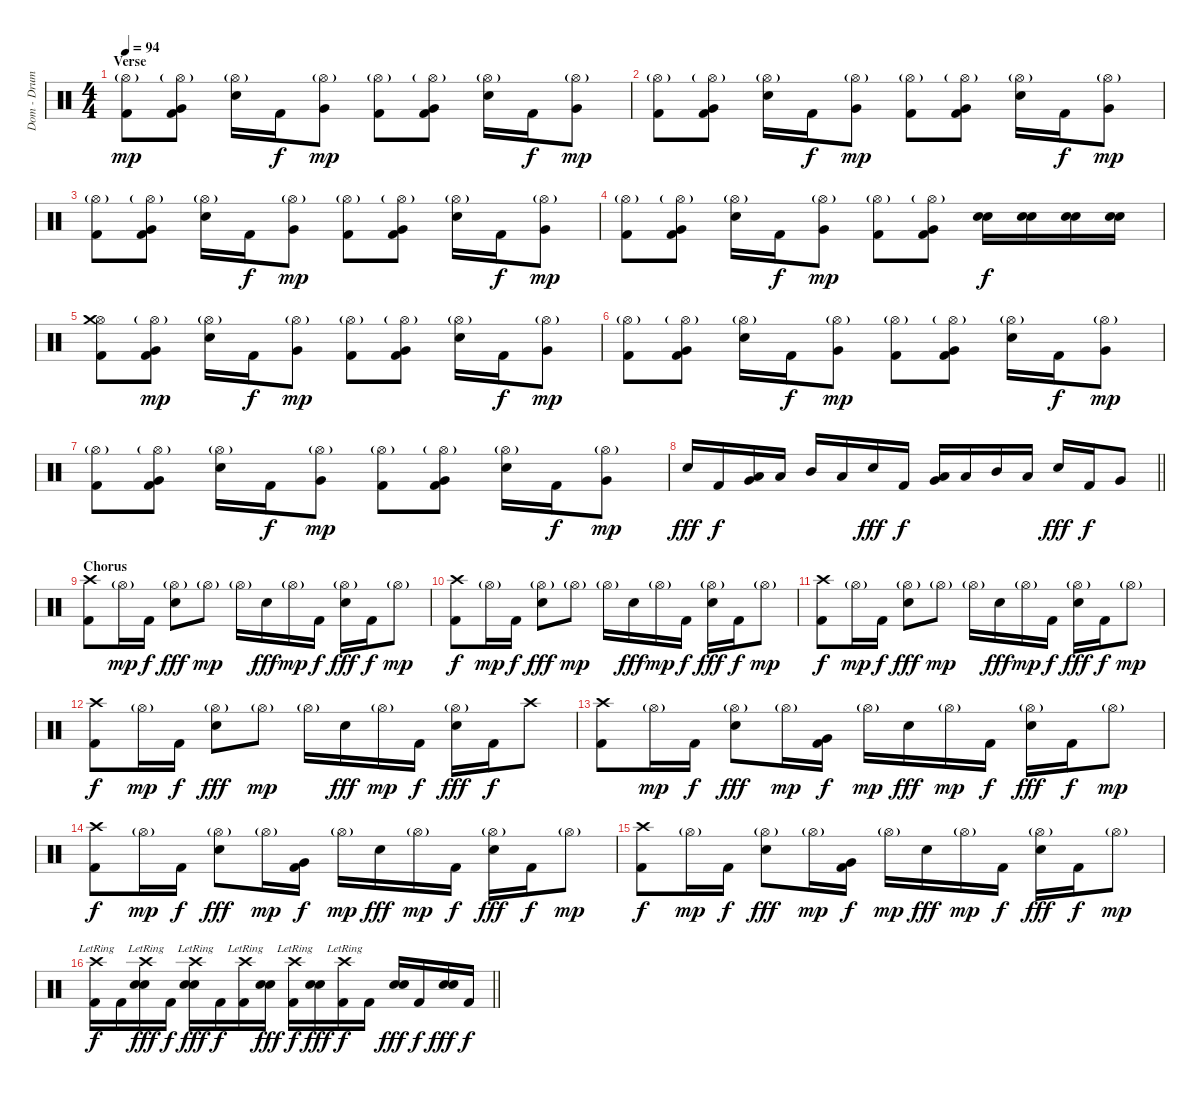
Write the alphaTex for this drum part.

\track ("Dom - Drums" "Dom - Drum") {instrument percussion}
\staff {score}
\articulation defaults
\ts (4 4)
\section ("" "Verse")
\tempo 94
\clef neutral
\ks c
("Hi-Hat (open)"{g} "Kick (hit) 2").8{dy mp} ("Hi-Hat (open)"{g} "Very Low Tom (hit)" "Kick (hit) 2").8 ("Hi-Hat (open)"{g} "Electric Snare (hit)").16 "Kick (hit) 2".16{dy f} ("Hi-Hat (open)"{g} "Very Low Tom (hit)").8{dy mp} ("Hi-Hat (open)"{g} "Kick (hit) 2").8 ("Hi-Hat (open)"{g} "Very Low Tom (hit)" "Kick (hit) 2").8 ("Hi-Hat (open)"{g} "Electric Snare (hit)").16 "Kick (hit) 2".16{dy f} ("Hi-Hat (open)"{g} "Very Low Tom (hit)").8{dy mp} |
("Hi-Hat (open)"{g} "Kick (hit) 2").8 ("Hi-Hat (open)"{g} "Very Low Tom (hit)" "Kick (hit) 2").8 ("Hi-Hat (open)"{g} "Electric Snare (hit)").16 "Kick (hit) 2".16{dy f} ("Hi-Hat (open)"{g} "Very Low Tom (hit)").8{dy mp} ("Hi-Hat (open)"{g} "Kick (hit) 2").8 ("Hi-Hat (open)"{g} "Very Low Tom (hit)" "Kick (hit) 2").8 ("Hi-Hat (open)"{g} "Electric Snare (hit)").16 "Kick (hit) 2".16{dy f} ("Hi-Hat (open)"{g} "Very Low Tom (hit)").8{dy mp} |
("Hi-Hat (open)"{g} "Kick (hit) 2").8 ("Hi-Hat (open)"{g} "Very Low Tom (hit)" "Kick (hit) 2").8 ("Hi-Hat (open)"{g} "Electric Snare (hit)").16 "Kick (hit) 2".16{dy f} ("Hi-Hat (open)"{g} "Very Low Tom (hit)").8{dy mp} ("Hi-Hat (open)"{g} "Kick (hit) 2").8 ("Hi-Hat (open)"{g} "Very Low Tom (hit)" "Kick (hit) 2").8 ("Hi-Hat (open)"{g} "Electric Snare (hit)").16 "Kick (hit) 2".16{dy f} ("Hi-Hat (open)"{g} "Very Low Tom (hit)").8{dy mp} |
("Hi-Hat (open)"{g} "Kick (hit) 2").8 ("Hi-Hat (open)"{g} "Very Low Tom (hit)" "Kick (hit) 2").8 ("Hi-Hat (open)"{g} "Electric Snare (hit)").16 "Kick (hit) 2".16{dy f} ("Hi-Hat (open)"{g} "Very Low Tom (hit)").8{dy mp} ("Hi-Hat (open)"{g} "Kick (hit) 2").8 ("Hi-Hat (open)"{g} "Very Low Tom (hit)" "Kick (hit) 2").8 ("Snare (hit) 2" "Electric Snare (hit)").16{dy f} ("Snare (hit) 2" "Electric Snare (hit)").16 ("Snare (hit) 2" "Electric Snare (hit)").16 ("Snare (hit) 2" "Electric Snare (hit)").16 |
("Hi-Hat (open)" "Crash medium (hit)" "Kick (hit) 2").8 ("Hi-Hat (open)"{g} "Very Low Tom (hit)" "Kick (hit) 2").8{dy mp} ("Hi-Hat (open)"{g} "Electric Snare (hit)").16 "Kick (hit) 2".16{dy f} ("Hi-Hat (open)"{g} "Very Low Tom (hit)").8{dy mp} ("Hi-Hat (open)"{g} "Kick (hit) 2").8 ("Hi-Hat (open)"{g} "Very Low Tom (hit)" "Kick (hit) 2").8 ("Hi-Hat (open)"{g} "Electric Snare (hit)").16 "Kick (hit) 2".16{dy f} ("Hi-Hat (open)"{g} "Very Low Tom (hit)").8{dy mp} |
("Hi-Hat (open)"{g} "Kick (hit) 2").8 ("Hi-Hat (open)"{g} "Very Low Tom (hit)" "Kick (hit) 2").8 ("Hi-Hat (open)"{g} "Electric Snare (hit)").16 "Kick (hit) 2".16{dy f} ("Hi-Hat (open)"{g} "Very Low Tom (hit)").8{dy mp} ("Hi-Hat (open)"{g} "Kick (hit) 2").8 ("Hi-Hat (open)"{g} "Very Low Tom (hit)" "Kick (hit) 2").8 ("Hi-Hat (open)"{g} "Electric Snare (hit)").16 "Kick (hit) 2".16{dy f} ("Hi-Hat (open)"{g} "Very Low Tom (hit)").8{dy mp} |
("Hi-Hat (open)"{g} "Kick (hit) 2").8 ("Hi-Hat (open)"{g} "Very Low Tom (hit)" "Kick (hit) 2").8 ("Hi-Hat (open)"{g} "Electric Snare (hit)").16 "Kick (hit) 2".16{dy f} ("Hi-Hat (open)"{g} "Very Low Tom (hit)").8{dy mp} ("Hi-Hat (open)"{g} "Kick (hit) 2").8 ("Hi-Hat (open)"{g} "Very Low Tom (hit)" "Kick (hit) 2").8 ("Hi-Hat (open)"{g} "Electric Snare (hit)").16 "Kick (hit) 2".16{dy f} ("Hi-Hat (open)"{g} "Very Low Tom (hit)").8{dy mp} |
\barLineRight lightlight "Snare (hit) 2".16{dy fff} "Kick (hit) 2".16{dy f}
("Very Low Tom (hit)" "Low Floor Tom (hit)").16 "Low Tom (hit)".16 "Mid Tom (hit)".16 "Low Tom (hit)".16 "Snare (hit) 2".16{dy fff} "Kick (hit) 2".16{dy f} ("Very Low Tom (hit)" "Low Floor Tom (hit)").16 "Low Tom (hit)".16 "Mid Tom (hit)".16 "Low Tom (hit)".16 "Snare (hit) 2".16{dy fff} "Kick (hit) 2".16{dy f} "Very Low Tom (hit)".8 |
\section ("" "Chorus")
("Crash high (hit)" "Kick (hit) 2").8 "Hi-Hat (open)"{g}.16{dy mp} "Kick (hit) 2".16{dy f} ("Hi-Hat (open)"{g} "Snare (hit) 2").8{dy fff} "Hi-Hat (open)"{g}.8{dy mp} "Hi-Hat (open)"{g}.16 "Snare (hit) 2".16{dy fff} "Hi-Hat (open)"{g}.16{dy mp} "Kick (hit) 2".16{dy f} ("Hi-Hat (open)"{g} "Snare (hit) 2").16{dy fff} "Kick (hit) 2".16{dy f} "Hi-Hat (open)"{g}.8{dy mp} |
("Crash high (hit)" "Kick (hit) 2").8{dy f} "Hi-Hat (open)"{g}.16{dy mp} "Kick (hit) 2".16{dy f} ("Hi-Hat (open)"{g} "Snare (hit) 2").8{dy fff} "Hi-Hat (open)"{g}.8{dy mp} "Hi-Hat (open)"{g}.16 "Snare (hit) 2".16{dy fff} "Hi-Hat (open)"{g}.16{dy mp} "Kick (hit) 2".16{dy f} ("Hi-Hat (open)"{g} "Snare (hit) 2").16{dy fff} "Kick (hit) 2".16{dy f} "Hi-Hat (open)"{g}.8{dy mp} |
("Crash high (hit)" "Kick (hit) 2").8{dy f} "Hi-Hat (open)"{g}.16{dy mp} "Kick (hit) 2".16{dy f} ("Hi-Hat (open)"{g} "Snare (hit) 2").8{dy fff} "Hi-Hat (open)"{g}.8{dy mp} "Hi-Hat (open)"{g}.16 "Snare (hit) 2".16{dy fff} "Hi-Hat (open)"{g}.16{dy mp} "Kick (hit) 2".16{dy f} ("Hi-Hat (open)"{g} "Snare (hit) 2").16{dy fff} "Kick (hit) 2".16{dy f} "Hi-Hat (open)"{g}.8{dy mp} |
("Crash high (hit)" "Kick (hit) 2").8{dy f} "Hi-Hat (open)"{g}.16{dy mp} "Kick (hit) 2".16{dy f} ("Hi-Hat (open)"{g} "Snare (hit) 2").8{dy fff} "Hi-Hat (open)"{g}.8{dy mp} "Hi-Hat (open)"{g}.16 "Snare (hit) 2".16{dy fff} "Hi-Hat (open)"{g}.16{dy mp} "Kick (hit) 2".16{dy f} ("Hi-Hat (open)"{g} "Snare (hit) 2").16{dy fff} "Kick (hit) 2".16{dy f} "Crash high (hit)".8 |
("Crash high (hit)" "Kick (hit) 2").8 "Hi-Hat (open)"{g}.16{dy mp} "Kick (hit) 2".16{dy f} ("Hi-Hat (open)"{g} "Snare (hit) 2").8{dy fff} "Hi-Hat (open)"{g}.16{dy mp} ("Very Low Tom (hit)" "Kick (hit) 2").16{dy f} "Hi-Hat (open)"{g}.16{dy mp} "Snare (hit) 2".16{dy fff} "Hi-Hat (open)"{g}.16{dy mp} "Kick (hit) 2".16{dy f} ("Hi-Hat (open)"{g} "Snare (hit) 2").16{dy fff} "Kick (hit) 2".16{dy f} "Hi-Hat (open)"{g}.8{dy mp} |
("Crash high (hit)" "Kick (hit) 2").8{dy f} "Hi-Hat (open)"{g}.16{dy mp} "Kick (hit) 2".16{dy f} ("Hi-Hat (open)"{g} "Snare (hit) 2").8{dy fff} "Hi-Hat (open)"{g}.16{dy mp} ("Very Low Tom (hit)" "Kick (hit) 2").16{dy f} "Hi-Hat (open)"{g}.16{dy mp} "Snare (hit) 2".16{dy fff} "Hi-Hat (open)"{g}.16{dy mp} "Kick (hit) 2".16{dy f} ("Hi-Hat (open)"{g} "Snare (hit) 2").16{dy fff} "Kick (hit) 2".16{dy f} "Hi-Hat (open)"{g}.8{dy mp} |
("Crash high (hit)" "Kick (hit) 2").8{dy f} "Hi-Hat (open)"{g}.16{dy mp} "Kick (hit) 2".16{dy f} ("Hi-Hat (open)"{g} "Snare (hit) 2").8{dy fff} "Hi-Hat (open)"{g}.16{dy mp} ("Very Low Tom (hit)" "Kick (hit) 2").16{dy f} "Hi-Hat (open)"{g}.16{dy mp} "Snare (hit) 2".16{dy fff} "Hi-Hat (open)"{g}.16{dy mp} "Kick (hit) 2".16{dy f} ("Hi-Hat (open)"{g} "Snare (hit) 2").16{dy fff} "Kick (hit) 2".16{dy f} "Hi-Hat (open)"{g}.8{dy mp} |
\barLineRight lightlight
("Crash high (hit)"{lr} "Kick (hit) 2").16{dy f} "Kick (hit) 2".16 ("Crash high (hit)"{lr} "Electric Snare (hit)" "Snare (hit) 2").16{dy fff} "Kick (hit) 2".16{dy f} ("Crash high (hit)"{lr} "Electric Snare (hit)" "Snare (hit) 2").16{dy fff} "Kick (hit) 2".16{dy f} ("Crash high (hit)"{lr} "Kick (hit) 2").16 ("Electric Snare (hit)" "Snare (hit) 2").16{dy fff} ("Crash high (hit)"{lr} "Kick (hit) 2").16{dy f} ("Electric Snare (hit)" "Snare (hit) 2").16{dy fff} ("Crash high (hit)"{lr} "Kick (hit) 2").16{dy f} "Kick (hit) 2".16 ("Electric Snare (hit)" "Snare (hit) 2").16{dy fff} "Kick (hit) 2".16{dy f} ("Electric Snare (hit)" "Snare (hit) 2").16{dy fff} "Kick (hit) 2".16{dy f}
